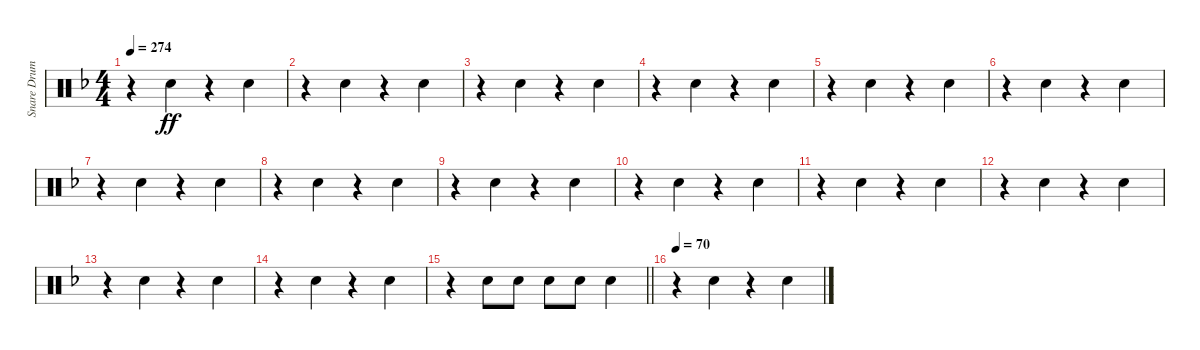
\track ("Snare Drum" "Snare Drum") {instrument percussion}
\staff {score}
\articulation defaults
\ts (4 4)
\tempo 274
\clef neutral
\ks dminor
r.4{dy ff} "Electric Snare (hit)".4 r.4 "Electric Snare (hit)".4 |
r.4 "Electric Snare (hit)".4 r.4 "Electric Snare (hit)".4 |
r.4 "Electric Snare (hit)".4 r.4 "Electric Snare (hit)".4 |
r.4 "Electric Snare (hit)".4 r.4 "Electric Snare (hit)".4 |
r.4 "Electric Snare (hit)".4 r.4 "Electric Snare (hit)".4 |
r.4 "Electric Snare (hit)".4 r.4 "Electric Snare (hit)".4 |
r.4 "Electric Snare (hit)".4 r.4 "Electric Snare (hit)".4 |
r.4 "Electric Snare (hit)".4 r.4 "Electric Snare (hit)".4 |
r.4 "Electric Snare (hit)".4 r.4 "Electric Snare (hit)".4 |
r.4 "Electric Snare (hit)".4 r.4 "Electric Snare (hit)".4 |
r.4 "Electric Snare (hit)".4 r.4 "Electric Snare (hit)".4 |
r.4 "Electric Snare (hit)".4 r.4 "Electric Snare (hit)".4 |
r.4 "Electric Snare (hit)".4 r.4 "Electric Snare (hit)".4 |
r.4 "Electric Snare (hit)".4 r.4 "Electric Snare (hit)".4 |
\barLineRight lightlight
r.4 "Electric Snare (hit)".8 "Electric Snare (hit)".8 "Electric Snare (hit)".8 "Electric Snare (hit)".8{beam merge} "Electric Snare (hit)".4 |
\tempo 70
r.4 "Electric Snare (hit)".4 r.4 "Electric Snare (hit)".4
